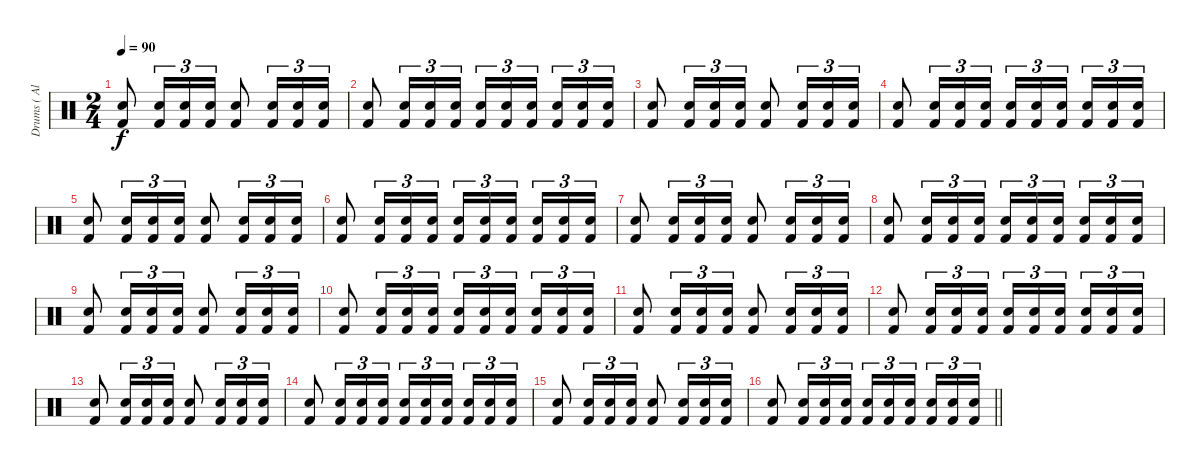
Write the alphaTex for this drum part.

\track ("Drums ( Alex Holzwarth)" "Drums ( Al") {instrument percussion}
\staff {score}
\articulation defaults
\ts (2 4)
\tempo 90
\clef neutral
\ks c
("Snare (hit) 2" "Kick (hit) 2").8{dy f} ("Snare (hit) 2" "Kick (hit) 2").16{tu (3 2)} ("Snare (hit) 2" "Kick (hit) 2").16{tu (3 2)} ("Snare (hit) 2" "Kick (hit) 2").16{tu (3 2)} ("Snare (hit) 2" "Kick (hit) 2").8 ("Snare (hit) 2" "Kick (hit) 2").16{tu (3 2)} ("Snare (hit) 2" "Kick (hit) 2").16{tu (3 2)} ("Snare (hit) 2" "Kick (hit) 2").16{tu (3 2)} |
("Snare (hit) 2" "Kick (hit) 2").8 ("Snare (hit) 2" "Kick (hit) 2").16{tu (3 2)} ("Snare (hit) 2" "Kick (hit) 2").16{tu (3 2)} ("Snare (hit) 2" "Kick (hit) 2").16{tu (3 2)} ("Snare (hit) 2" "Kick (hit) 2").16{tu (3 2)} ("Snare (hit) 2" "Kick (hit) 2").16{tu (3 2)} ("Snare (hit) 2" "Kick (hit) 2").16{tu (3 2) beam splitsecondary} ("Snare (hit) 2" "Kick (hit) 2").16{tu (3 2)} ("Snare (hit) 2" "Kick (hit) 2").16{tu (3 2)} ("Snare (hit) 2" "Kick (hit) 2").16{tu (3 2)} |
("Snare (hit) 2" "Kick (hit) 2").8 ("Snare (hit) 2" "Kick (hit) 2").16{tu (3 2)} ("Snare (hit) 2" "Kick (hit) 2").16{tu (3 2)} ("Snare (hit) 2" "Kick (hit) 2").16{tu (3 2)} ("Snare (hit) 2" "Kick (hit) 2").8 ("Snare (hit) 2" "Kick (hit) 2").16{tu (3 2)} ("Snare (hit) 2" "Kick (hit) 2").16{tu (3 2)} ("Snare (hit) 2" "Kick (hit) 2").16{tu (3 2)} |
("Snare (hit) 2" "Kick (hit) 2").8 ("Snare (hit) 2" "Kick (hit) 2").16{tu (3 2)} ("Snare (hit) 2" "Kick (hit) 2").16{tu (3 2)} ("Snare (hit) 2" "Kick (hit) 2").16{tu (3 2)} ("Snare (hit) 2" "Kick (hit) 2").16{tu (3 2)} ("Snare (hit) 2" "Kick (hit) 2").16{tu (3 2)} ("Snare (hit) 2" "Kick (hit) 2").16{tu (3 2) beam splitsecondary} ("Snare (hit) 2" "Kick (hit) 2").16{tu (3 2)} ("Snare (hit) 2" "Kick (hit) 2").16{tu (3 2)} ("Snare (hit) 2" "Kick (hit) 2").16{tu (3 2)} |
("Snare (hit) 2" "Kick (hit) 2").8 ("Snare (hit) 2" "Kick (hit) 2").16{tu (3 2)} ("Snare (hit) 2" "Kick (hit) 2").16{tu (3 2)} ("Snare (hit) 2" "Kick (hit) 2").16{tu (3 2)} ("Snare (hit) 2" "Kick (hit) 2").8 ("Snare (hit) 2" "Kick (hit) 2").16{tu (3 2)} ("Snare (hit) 2" "Kick (hit) 2").16{tu (3 2)} ("Snare (hit) 2" "Kick (hit) 2").16{tu (3 2)} |
("Snare (hit) 2" "Kick (hit) 2").8 ("Snare (hit) 2" "Kick (hit) 2").16{tu (3 2)} ("Snare (hit) 2" "Kick (hit) 2").16{tu (3 2)} ("Snare (hit) 2" "Kick (hit) 2").16{tu (3 2)} ("Snare (hit) 2" "Kick (hit) 2").16{tu (3 2)} ("Snare (hit) 2" "Kick (hit) 2").16{tu (3 2)} ("Snare (hit) 2" "Kick (hit) 2").16{tu (3 2) beam splitsecondary} ("Snare (hit) 2" "Kick (hit) 2").16{tu (3 2)} ("Snare (hit) 2" "Kick (hit) 2").16{tu (3 2)} ("Snare (hit) 2" "Kick (hit) 2").16{tu (3 2)} |
("Snare (hit) 2" "Kick (hit) 2").8 ("Snare (hit) 2" "Kick (hit) 2").16{tu (3 2)} ("Snare (hit) 2" "Kick (hit) 2").16{tu (3 2)} ("Snare (hit) 2" "Kick (hit) 2").16{tu (3 2)} ("Snare (hit) 2" "Kick (hit) 2").8 ("Snare (hit) 2" "Kick (hit) 2").16{tu (3 2)} ("Snare (hit) 2" "Kick (hit) 2").16{tu (3 2)} ("Snare (hit) 2" "Kick (hit) 2").16{tu (3 2)} |
("Snare (hit) 2" "Kick (hit) 2").8 ("Snare (hit) 2" "Kick (hit) 2").16{tu (3 2)} ("Snare (hit) 2" "Kick (hit) 2").16{tu (3 2)} ("Snare (hit) 2" "Kick (hit) 2").16{tu (3 2)} ("Snare (hit) 2" "Kick (hit) 2").16{tu (3 2)} ("Snare (hit) 2" "Kick (hit) 2").16{tu (3 2)} ("Snare (hit) 2" "Kick (hit) 2").16{tu (3 2) beam splitsecondary} ("Snare (hit) 2" "Kick (hit) 2").16{tu (3 2)} ("Snare (hit) 2" "Kick (hit) 2").16{tu (3 2)} ("Snare (hit) 2" "Kick (hit) 2").16{tu (3 2)} |
("Snare (hit) 2" "Kick (hit) 2").8 ("Snare (hit) 2" "Kick (hit) 2").16{tu (3 2)} ("Snare (hit) 2" "Kick (hit) 2").16{tu (3 2)} ("Snare (hit) 2" "Kick (hit) 2").16{tu (3 2)} ("Snare (hit) 2" "Kick (hit) 2").8 ("Snare (hit) 2" "Kick (hit) 2").16{tu (3 2)} ("Snare (hit) 2" "Kick (hit) 2").16{tu (3 2)} ("Snare (hit) 2" "Kick (hit) 2").16{tu (3 2)} |
("Snare (hit) 2" "Kick (hit) 2").8 ("Snare (hit) 2" "Kick (hit) 2").16{tu (3 2)} ("Snare (hit) 2" "Kick (hit) 2").16{tu (3 2)} ("Snare (hit) 2" "Kick (hit) 2").16{tu (3 2)} ("Snare (hit) 2" "Kick (hit) 2").16{tu (3 2)} ("Snare (hit) 2" "Kick (hit) 2").16{tu (3 2)} ("Snare (hit) 2" "Kick (hit) 2").16{tu (3 2) beam splitsecondary} ("Snare (hit) 2" "Kick (hit) 2").16{tu (3 2)} ("Snare (hit) 2" "Kick (hit) 2").16{tu (3 2)} ("Snare (hit) 2" "Kick (hit) 2").16{tu (3 2)} |
("Snare (hit) 2" "Kick (hit) 2").8 ("Snare (hit) 2" "Kick (hit) 2").16{tu (3 2)} ("Snare (hit) 2" "Kick (hit) 2").16{tu (3 2)} ("Snare (hit) 2" "Kick (hit) 2").16{tu (3 2)} ("Snare (hit) 2" "Kick (hit) 2").8 ("Snare (hit) 2" "Kick (hit) 2").16{tu (3 2)} ("Snare (hit) 2" "Kick (hit) 2").16{tu (3 2)} ("Snare (hit) 2" "Kick (hit) 2").16{tu (3 2)} |
("Snare (hit) 2" "Kick (hit) 2").8 ("Snare (hit) 2" "Kick (hit) 2").16{tu (3 2)} ("Snare (hit) 2" "Kick (hit) 2").16{tu (3 2)} ("Snare (hit) 2" "Kick (hit) 2").16{tu (3 2)} ("Snare (hit) 2" "Kick (hit) 2").16{tu (3 2)} ("Snare (hit) 2" "Kick (hit) 2").16{tu (3 2)} ("Snare (hit) 2" "Kick (hit) 2").16{tu (3 2) beam splitsecondary} ("Snare (hit) 2" "Kick (hit) 2").16{tu (3 2)} ("Snare (hit) 2" "Kick (hit) 2").16{tu (3 2)} ("Snare (hit) 2" "Kick (hit) 2").16{tu (3 2)} |
("Snare (hit) 2" "Kick (hit) 2").8 ("Snare (hit) 2" "Kick (hit) 2").16{tu (3 2)} ("Snare (hit) 2" "Kick (hit) 2").16{tu (3 2)} ("Snare (hit) 2" "Kick (hit) 2").16{tu (3 2)} ("Snare (hit) 2" "Kick (hit) 2").8 ("Snare (hit) 2" "Kick (hit) 2").16{tu (3 2)} ("Snare (hit) 2" "Kick (hit) 2").16{tu (3 2)} ("Snare (hit) 2" "Kick (hit) 2").16{tu (3 2)} |
("Snare (hit) 2" "Kick (hit) 2").8 ("Snare (hit) 2" "Kick (hit) 2").16{tu (3 2)} ("Snare (hit) 2" "Kick (hit) 2").16{tu (3 2)} ("Snare (hit) 2" "Kick (hit) 2").16{tu (3 2)} ("Snare (hit) 2" "Kick (hit) 2").16{tu (3 2)} ("Snare (hit) 2" "Kick (hit) 2").16{tu (3 2)} ("Snare (hit) 2" "Kick (hit) 2").16{tu (3 2) beam splitsecondary} ("Snare (hit) 2" "Kick (hit) 2").16{tu (3 2)} ("Snare (hit) 2" "Kick (hit) 2").16{tu (3 2)} ("Snare (hit) 2" "Kick (hit) 2").16{tu (3 2)} |
("Snare (hit) 2" "Kick (hit) 2").8 ("Snare (hit) 2" "Kick (hit) 2").16{tu (3 2)} ("Snare (hit) 2" "Kick (hit) 2").16{tu (3 2)} ("Snare (hit) 2" "Kick (hit) 2").16{tu (3 2)} ("Snare (hit) 2" "Kick (hit) 2").8 ("Snare (hit) 2" "Kick (hit) 2").16{tu (3 2)} ("Snare (hit) 2" "Kick (hit) 2").16{tu (3 2)} ("Snare (hit) 2" "Kick (hit) 2").16{tu (3 2)} |
\barLineRight lightlight
("Snare (hit) 2" "Kick (hit) 2").8 ("Snare (hit) 2" "Kick (hit) 2").16{tu (3 2)} ("Snare (hit) 2" "Kick (hit) 2").16{tu (3 2)} ("Snare (hit) 2" "Kick (hit) 2").16{tu (3 2)} ("Snare (hit) 2" "Kick (hit) 2").16{tu (3 2)} ("Snare (hit) 2" "Kick (hit) 2").16{tu (3 2)} ("Snare (hit) 2" "Kick (hit) 2").16{tu (3 2) beam splitsecondary} ("Snare (hit) 2" "Kick (hit) 2").16{tu (3 2)} ("Snare (hit) 2" "Kick (hit) 2").16{tu (3 2)} ("Snare (hit) 2" "Kick (hit) 2").16{tu (3 2)}
